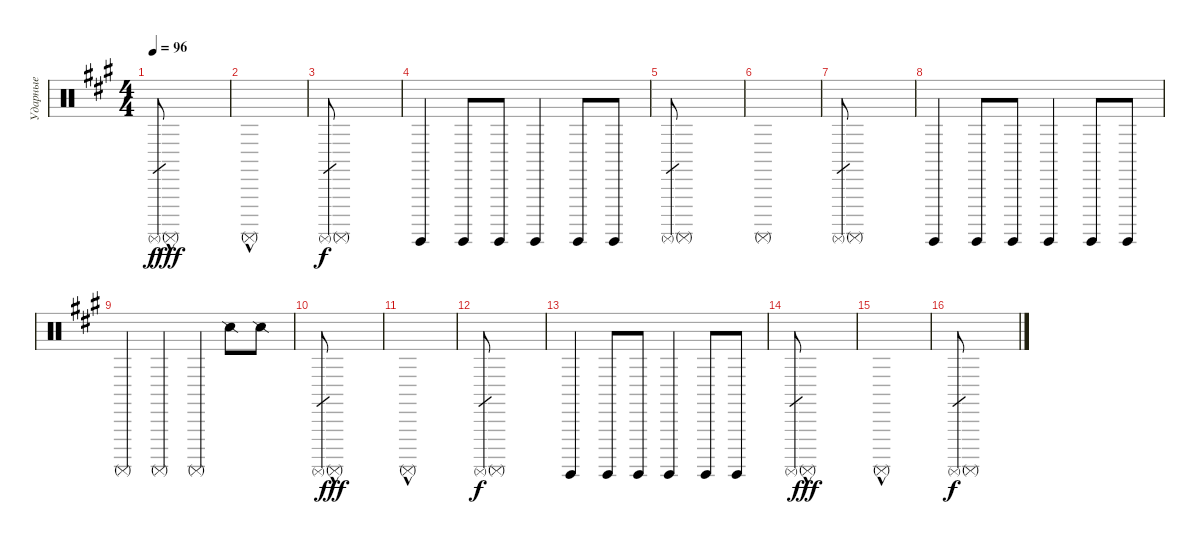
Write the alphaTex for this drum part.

\track ("Ударные" "Ударные") {solo instrument percussion}
\staff {score}
\articulation defaults
\ts (4 4)
\tempo 96
\clef neutral
\ks f#minor "Surdo (mute)".8{gr dy f} "Surdo (mute)"{hac}.1{dy fff}
|
"Surdo (mute)"{hac}.1 |
"Surdo (mute)".8{gr dy f} "Surdo (mute)".1 |
"Surdo (hit)".4 "Surdo (hit)".8 "Surdo (hit)".8 "Surdo (hit)".4 "Surdo (hit)".8 "Surdo (hit)".8 |
"Surdo (mute)".8{gr} "Surdo (mute)".1 |
"Surdo (mute)".1 |
"Surdo (mute)".8{gr} "Surdo (mute)".1 |
"Surdo (hit)".4 "Surdo (hit)".8 "Surdo (hit)".8 "Surdo (hit)".4 "Surdo (hit)".8 "Surdo (hit)".8 |
"Surdo (mute)".4 "Surdo (mute)".4 "Surdo (mute)".4 "Snare (side stick) 2".8 "Snare (side stick) 2".8 |
"Surdo (mute)".8{gr} "Surdo (mute)"{hac}.1{dy fff} |
"Surdo (mute)"{hac}.1 |
"Surdo (mute)".8{gr dy f} "Surdo (mute)".1 |
"Surdo (hit)".4 "Surdo (hit)".8 "Surdo (hit)".8 "Surdo (hit)".4 "Surdo (hit)".8 "Surdo (hit)".8 |
"Surdo (mute)".8{gr} "Surdo (mute)"{hac}.1{dy fff} |
"Surdo (mute)"{hac}.1 |
"Surdo (mute)".8{gr dy f} "Surdo (mute)".1
